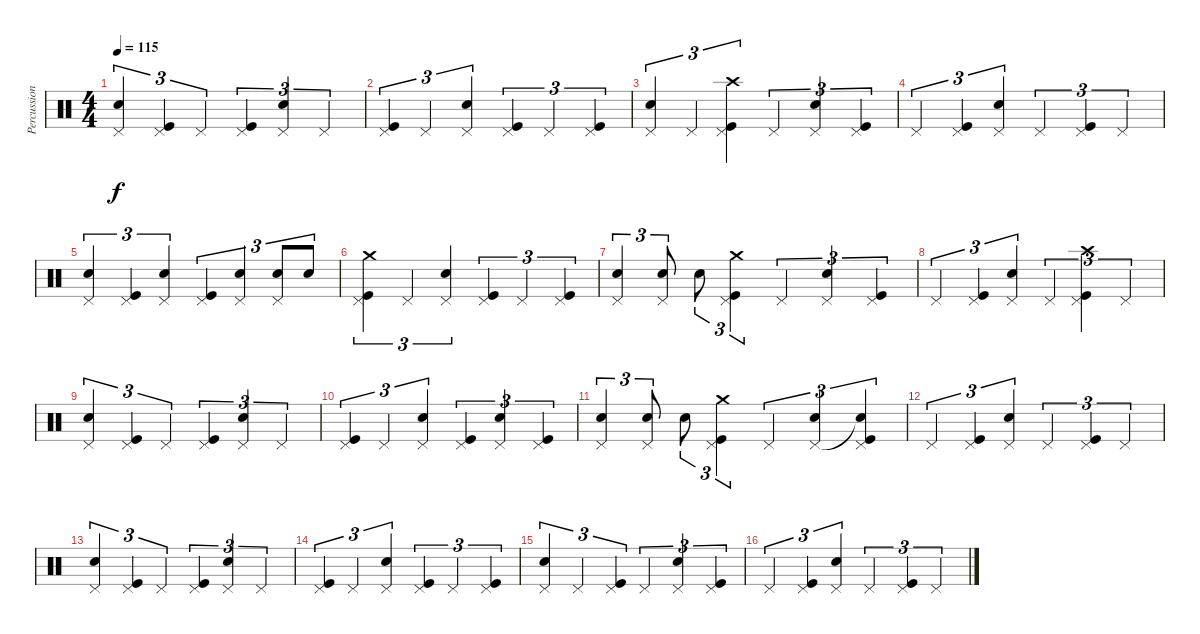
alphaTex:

\track ("Percussion" "Percussion") {instrument percussion}
\staff {score}
\articulation defaults
\ts (4 4)
\tempo 115
\clef neutral
\ks c
("Pedal Hi-Hat (hit)" "Electric Snare (hit)").4{tu (3 2) dy f} ("Pedal Hi-Hat (hit)" "Kick (hit)").4{tu (3 2)} "Pedal Hi-Hat (hit)".4{tu (3 2)} ("Pedal Hi-Hat (hit)" "Kick (hit)").4{tu (3 2)} ("Pedal Hi-Hat (hit)" "Electric Snare (hit)").4{tu (3 2)} "Pedal Hi-Hat (hit)".4{tu (3 2)} |
("Pedal Hi-Hat (hit)" "Kick (hit)").4{tu (3 2)} "Pedal Hi-Hat (hit)".4{tu (3 2)} ("Pedal Hi-Hat (hit)" "Electric Snare (hit)").4{tu (3 2)} ("Pedal Hi-Hat (hit)" "Kick (hit)").4{tu (3 2)} "Pedal Hi-Hat (hit)".4{tu (3 2)} ("Pedal Hi-Hat (hit)" "Kick (hit)").4{tu (3 2)} |
("Pedal Hi-Hat (hit)" "Electric Snare (hit)").4{tu (3 2)} "Pedal Hi-Hat (hit)".4{tu (3 2)} ("Crash high (hit)" "Pedal Hi-Hat (hit)" "Kick (hit)").4{tu (3 2)} "Pedal Hi-Hat (hit)".4{tu (3 2)} ("Pedal Hi-Hat (hit)" "Electric Snare (hit)").4{tu (3 2)} ("Pedal Hi-Hat (hit)" "Kick (hit)").4{tu (3 2)} |
"Pedal Hi-Hat (hit)".4{tu (3 2)} ("Pedal Hi-Hat (hit)" "Kick (hit)").4{tu (3 2)} ("Pedal Hi-Hat (hit)" "Electric Snare (hit)").4{tu (3 2)} "Pedal Hi-Hat (hit)".4{tu (3 2)} ("Pedal Hi-Hat (hit)" "Kick (hit)").4{tu (3 2)} "Pedal Hi-Hat (hit)".4{tu (3 2)} |
("Pedal Hi-Hat (hit)" "Electric Snare (hit)").4{tu (3 2)} ("Pedal Hi-Hat (hit)" "Kick (hit)").4{tu (3 2)} ("Pedal Hi-Hat (hit)" "Electric Snare (hit)").4{tu (3 2)} ("Pedal Hi-Hat (hit)" "Kick (hit)").4{tu (3 2)} ("Pedal Hi-Hat (hit)" "Electric Snare (hit)").4{tu (3 2)} ("Pedal Hi-Hat (hit)" "Electric Snare (hit)").8{tu (3 2)} "Electric Snare (hit)".8{tu (3 2)} |
("Crash medium (hit)" "Pedal Hi-Hat (hit)" "Kick (hit)").4{tu (3 2)} "Pedal Hi-Hat (hit)".4{tu (3 2)} ("Pedal Hi-Hat (hit)" "Electric Snare (hit)").4{tu (3 2)} ("Pedal Hi-Hat (hit)" "Kick (hit)").4{tu (3 2)} "Pedal Hi-Hat (hit)".4{tu (3 2)} ("Pedal Hi-Hat (hit)" "Kick (hit)").4{tu (3 2)} |
("Pedal Hi-Hat (hit)" "Electric Snare (hit)").4{tu (3 2)} ("Pedal Hi-Hat (hit)" "Electric Snare (hit)").8{tu (3 2)} "Electric Snare (hit)".8{tu (3 2)} ("Crash medium (hit)" "Pedal Hi-Hat (hit)" "Kick (hit)").4{tu (3 2)} "Pedal Hi-Hat (hit)".4{tu (3 2)} ("Pedal Hi-Hat (hit)" "Electric Snare (hit)").4{tu (3 2)} ("Pedal Hi-Hat (hit)" "Kick (hit)").4{tu (3 2)} |
"Pedal Hi-Hat (hit)".4{tu (3 2)} ("Pedal Hi-Hat (hit)" "Kick (hit)").4{tu (3 2)} ("Pedal Hi-Hat (hit)" "Electric Snare (hit)").4{tu (3 2)} "Pedal Hi-Hat (hit)".4{tu (3 2)} ("Crash high (hit)" "Pedal Hi-Hat (hit)" "Kick (hit)").4{tu (3 2)} "Pedal Hi-Hat (hit)".4{tu (3 2)} |
("Pedal Hi-Hat (hit)" "Electric Snare (hit)").4{tu (3 2)} ("Pedal Hi-Hat (hit)" "Kick (hit)").4{tu (3 2)} "Pedal Hi-Hat (hit)".4{tu (3 2)} ("Pedal Hi-Hat (hit)" "Kick (hit)").4{tu (3 2)} ("Pedal Hi-Hat (hit)" "Electric Snare (hit)").4{tu (3 2)} "Pedal Hi-Hat (hit)".4{tu (3 2)} |
("Pedal Hi-Hat (hit)" "Kick (hit)").4{tu (3 2)} "Pedal Hi-Hat (hit)".4{tu (3 2)} ("Pedal Hi-Hat (hit)" "Electric Snare (hit)").4{tu (3 2)} ("Pedal Hi-Hat (hit)" "Kick (hit)").4{tu (3 2)} ("Pedal Hi-Hat (hit)" "Electric Snare (hit)").4{tu (3 2)} ("Pedal Hi-Hat (hit)" "Kick (hit)").4{tu (3 2)} |
("Pedal Hi-Hat (hit)" "Electric Snare (hit)").4{tu (3 2)} ("Pedal Hi-Hat (hit)" "Electric Snare (hit)").8{tu (3 2)} "Electric Snare (hit)".8{tu (3 2)} ("Crash medium (hit)" "Pedal Hi-Hat (hit)" "Kick (hit)").4{tu (3 2)} "Pedal Hi-Hat (hit)".4{tu (3 2)} ("Pedal Hi-Hat (hit)" "Electric Snare (hit)").4{tu (3 2)} ("Snare (hit)"{t} "Pedal Hi-Hat (hit)" "Kick (hit)").4{tu (3 2)} |
"Pedal Hi-Hat (hit)".4{tu (3 2)} ("Pedal Hi-Hat (hit)" "Kick (hit)").4{tu (3 2)} ("Pedal Hi-Hat (hit)" "Electric Snare (hit)").4{tu (3 2)} "Pedal Hi-Hat (hit)".4{tu (3 2)} ("Pedal Hi-Hat (hit)" "Kick (hit)").4{tu (3 2)} "Pedal Hi-Hat (hit)".4{tu (3 2)} |
("Pedal Hi-Hat (hit)" "Electric Snare (hit)").4{tu (3 2)} ("Pedal Hi-Hat (hit)" "Kick (hit)").4{tu (3 2)} "Pedal Hi-Hat (hit)".4{tu (3 2)} ("Pedal Hi-Hat (hit)" "Kick (hit)").4{tu (3 2)} ("Pedal Hi-Hat (hit)" "Electric Snare (hit)").4{tu (3 2)} "Pedal Hi-Hat (hit)".4{tu (3 2)} |
("Pedal Hi-Hat (hit)" "Kick (hit)").4{tu (3 2)} "Pedal Hi-Hat (hit)".4{tu (3 2)} ("Pedal Hi-Hat (hit)" "Electric Snare (hit)").4{tu (3 2)} ("Pedal Hi-Hat (hit)" "Kick (hit)").4{tu (3 2)} "Pedal Hi-Hat (hit)".4{tu (3 2)} ("Pedal Hi-Hat (hit)" "Kick (hit)").4{tu (3 2)} |
("Pedal Hi-Hat (hit)" "Electric Snare (hit)").4{tu (3 2)} "Pedal Hi-Hat (hit)".4{tu (3 2)} ("Pedal Hi-Hat (hit)" "Kick (hit)").4{tu (3 2)} "Pedal Hi-Hat (hit)".4{tu (3 2)} ("Pedal Hi-Hat (hit)" "Electric Snare (hit)").4{tu (3 2)} ("Pedal Hi-Hat (hit)" "Kick (hit)").4{tu (3 2)} |
"Pedal Hi-Hat (hit)".4{tu (3 2)} ("Pedal Hi-Hat (hit)" "Kick (hit)").4{tu (3 2)} ("Pedal Hi-Hat (hit)" "Electric Snare (hit)").4{tu (3 2)} "Pedal Hi-Hat (hit)".4{tu (3 2)} ("Pedal Hi-Hat (hit)" "Kick (hit)").4{tu (3 2)} "Pedal Hi-Hat (hit)".4{tu (3 2)}
